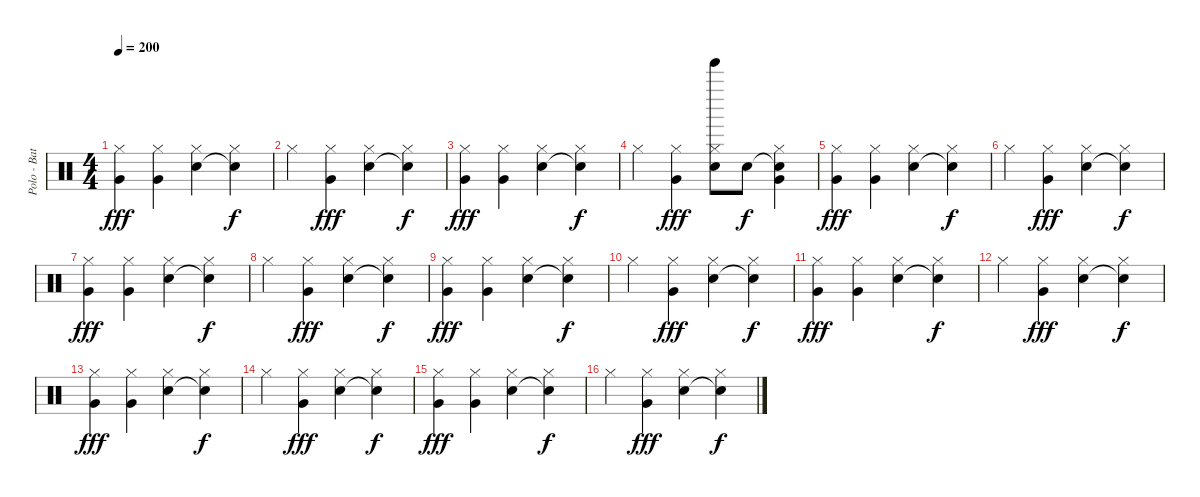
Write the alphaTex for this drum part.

\track ("Polo - Batería" "Polo - Bat") {instrument percussion}
\staff {score}
\articulation defaults
\ts (4 4)
\tempo 200
\clef neutral
\ks c
("Hi-Hat (closed)" "Very Low Tom (hit)").4{dy fff} ("Hi-Hat (closed)" "Very Low Tom (hit)").4 ("Hi-Hat (closed)" "Electric Snare (hit)").4 ("Hi-Hat (closed)" "Snare (hit)"{t}).4{dy f} |
"Hi-Hat (closed)".4 ("Hi-Hat (closed)" "Very Low Tom (hit)").4{dy fff} ("Hi-Hat (closed)" "Electric Snare (hit)").4 ("Hi-Hat (closed)" "Snare (hit)"{t}).4{dy f} |
("Hi-Hat (closed)" "Very Low Tom (hit)").4{dy fff} ("Hi-Hat (closed)" "Very Low Tom (hit)").4 ("Hi-Hat (closed)" "Electric Snare (hit)").4 ("Hi-Hat (closed)" "Snare (hit)"{t}).4{dy f} |
"Hi-Hat (closed)".4 ("Hi-Hat (closed)" "Very Low Tom (hit)").4{dy fff} ("Tinkle Bell (hit)" "Hi-Hat (closed)" "Electric Snare (hit)").8 "Electric Snare (hit)".8{dy f} ("Snare (hit)"{t} "Hi-Hat (closed)" "Very Low Tom (hit)").4 |
("Hi-Hat (closed)" "Very Low Tom (hit)").4{dy fff} ("Hi-Hat (closed)" "Very Low Tom (hit)").4 ("Hi-Hat (closed)" "Electric Snare (hit)").4 ("Hi-Hat (closed)" "Snare (hit)"{t}).4{dy f} |
"Hi-Hat (closed)".4 ("Hi-Hat (closed)" "Very Low Tom (hit)").4{dy fff} ("Hi-Hat (closed)" "Electric Snare (hit)").4 ("Hi-Hat (closed)" "Snare (hit)"{t}).4{dy f} |
("Hi-Hat (closed)" "Very Low Tom (hit)").4{dy fff} ("Hi-Hat (closed)" "Very Low Tom (hit)").4 ("Hi-Hat (closed)" "Electric Snare (hit)").4 ("Hi-Hat (closed)" "Snare (hit)"{t}).4{dy f} |
"Hi-Hat (closed)".4 ("Hi-Hat (closed)" "Very Low Tom (hit)").4{dy fff} ("Hi-Hat (closed)" "Electric Snare (hit)").4 ("Hi-Hat (closed)" "Snare (hit)"{t}).4{dy f} |
("Hi-Hat (closed)" "Very Low Tom (hit)").4{dy fff} ("Hi-Hat (closed)" "Very Low Tom (hit)").4 ("Hi-Hat (closed)" "Electric Snare (hit)").4 ("Hi-Hat (closed)" "Snare (hit)"{t}).4{dy f} |
"Hi-Hat (closed)".4 ("Hi-Hat (closed)" "Very Low Tom (hit)").4{dy fff} ("Hi-Hat (closed)" "Electric Snare (hit)").4 ("Hi-Hat (closed)" "Snare (hit)"{t}).4{dy f} |
("Hi-Hat (closed)" "Very Low Tom (hit)").4{dy fff} ("Hi-Hat (closed)" "Very Low Tom (hit)").4 ("Hi-Hat (closed)" "Electric Snare (hit)").4 ("Hi-Hat (closed)" "Snare (hit)"{t}).4{dy f} |
"Hi-Hat (closed)".4 ("Hi-Hat (closed)" "Very Low Tom (hit)").4{dy fff} ("Hi-Hat (closed)" "Electric Snare (hit)").4 ("Hi-Hat (closed)" "Snare (hit)"{t}).4{dy f} |
("Hi-Hat (closed)" "Very Low Tom (hit)").4{dy fff} ("Hi-Hat (closed)" "Very Low Tom (hit)").4 ("Hi-Hat (closed)" "Electric Snare (hit)").4 ("Hi-Hat (closed)" "Snare (hit)"{t}).4{dy f} |
"Hi-Hat (closed)".4 ("Hi-Hat (closed)" "Very Low Tom (hit)").4{dy fff} ("Hi-Hat (closed)" "Electric Snare (hit)").4 ("Hi-Hat (closed)" "Snare (hit)"{t}).4{dy f} |
("Hi-Hat (closed)" "Very Low Tom (hit)").4{dy fff} ("Hi-Hat (closed)" "Very Low Tom (hit)").4 ("Hi-Hat (closed)" "Electric Snare (hit)").4 ("Hi-Hat (closed)" "Snare (hit)"{t}).4{dy f} |
"Hi-Hat (closed)".4 ("Hi-Hat (closed)" "Very Low Tom (hit)").4{dy fff} ("Hi-Hat (closed)" "Electric Snare (hit)").4 ("Hi-Hat (closed)" "Snare (hit)"{t}).4{dy f}
